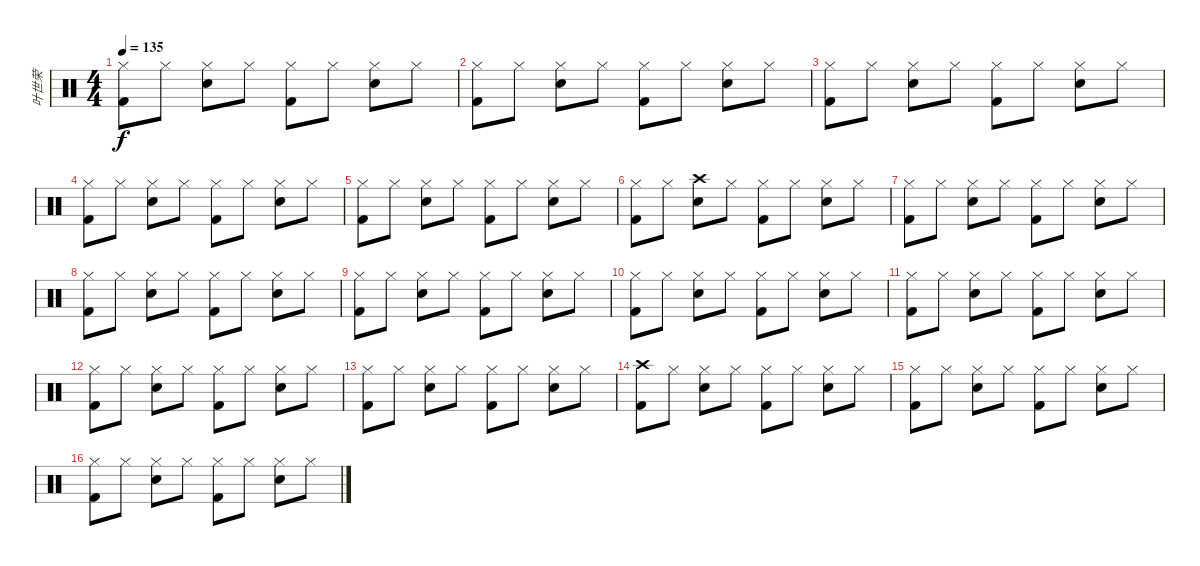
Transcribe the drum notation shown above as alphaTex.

\track ("叶世荣" "叶世荣") {instrument percussion}
\staff {score}
\articulation defaults
\ts (4 4)
\tempo 135
\clef neutral
\ks c
("Hi-Hat (closed)" "Kick (hit) 2").8{dy f} "Hi-Hat (closed)".8 ("Hi-Hat (closed)" "Electric Snare (hit)").8 "Hi-Hat (closed)".8 ("Hi-Hat (closed)" "Kick (hit) 2").8 "Hi-Hat (closed)".8 ("Hi-Hat (closed)" "Electric Snare (hit)").8 "Hi-Hat (closed)".8 |
("Hi-Hat (closed)" "Kick (hit) 2").8 "Hi-Hat (closed)".8 ("Hi-Hat (closed)" "Electric Snare (hit)").8 "Hi-Hat (closed)".8 ("Hi-Hat (closed)" "Kick (hit) 2").8 "Hi-Hat (closed)".8 ("Hi-Hat (closed)" "Electric Snare (hit)").8 "Hi-Hat (closed)".8 |
("Hi-Hat (closed)" "Kick (hit) 2").8 "Hi-Hat (closed)".8 ("Hi-Hat (closed)" "Electric Snare (hit)").8 "Hi-Hat (closed)".8 ("Hi-Hat (closed)" "Kick (hit) 2").8 "Hi-Hat (closed)".8 ("Hi-Hat (closed)" "Electric Snare (hit)").8 "Hi-Hat (closed)".8 |
("Hi-Hat (closed)" "Kick (hit) 2").8 "Hi-Hat (closed)".8 ("Hi-Hat (closed)" "Electric Snare (hit)").8 "Hi-Hat (closed)".8 ("Hi-Hat (closed)" "Kick (hit) 2").8 "Hi-Hat (closed)".8 ("Hi-Hat (closed)" "Electric Snare (hit)").8 "Hi-Hat (closed)".8 |
("Hi-Hat (closed)" "Kick (hit) 2").8 "Hi-Hat (closed)".8 ("Hi-Hat (closed)" "Electric Snare (hit)").8 "Hi-Hat (closed)".8 ("Hi-Hat (closed)" "Kick (hit) 2").8 "Hi-Hat (closed)".8 ("Hi-Hat (closed)" "Electric Snare (hit)").8 "Hi-Hat (closed)".8 |
("Hi-Hat (closed)" "Kick (hit) 2").8 "Hi-Hat (closed)".8 ("Crash high (hit)" "Electric Snare (hit)").8 "Hi-Hat (closed)".8 ("Hi-Hat (closed)" "Kick (hit) 2").8 "Hi-Hat (closed)".8 ("Hi-Hat (closed)" "Electric Snare (hit)").8 "Hi-Hat (closed)".8 |
("Hi-Hat (closed)" "Kick (hit) 2").8 "Hi-Hat (closed)".8 ("Hi-Hat (closed)" "Electric Snare (hit)").8 "Hi-Hat (closed)".8 ("Hi-Hat (closed)" "Kick (hit) 2").8 "Hi-Hat (closed)".8 ("Hi-Hat (closed)" "Electric Snare (hit)").8 "Hi-Hat (closed)".8 |
("Hi-Hat (closed)" "Kick (hit) 2").8 "Hi-Hat (closed)".8 ("Hi-Hat (closed)" "Electric Snare (hit)").8 "Hi-Hat (closed)".8 ("Hi-Hat (closed)" "Kick (hit) 2").8 "Hi-Hat (closed)".8 ("Hi-Hat (closed)" "Electric Snare (hit)").8 "Hi-Hat (closed)".8 |
("Hi-Hat (closed)" "Kick (hit) 2").8 "Hi-Hat (closed)".8 ("Hi-Hat (closed)" "Electric Snare (hit)").8 "Hi-Hat (closed)".8 ("Hi-Hat (closed)" "Kick (hit) 2").8 "Hi-Hat (closed)".8 ("Hi-Hat (closed)" "Electric Snare (hit)").8 "Hi-Hat (closed)".8 |
("Hi-Hat (closed)" "Kick (hit) 2").8 "Hi-Hat (closed)".8 ("Hi-Hat (closed)" "Electric Snare (hit)").8 "Hi-Hat (closed)".8 ("Hi-Hat (closed)" "Kick (hit) 2").8 "Hi-Hat (closed)".8 ("Hi-Hat (closed)" "Electric Snare (hit)").8 "Hi-Hat (closed)".8 |
("Hi-Hat (closed)" "Kick (hit) 2").8 "Hi-Hat (closed)".8 ("Hi-Hat (closed)" "Electric Snare (hit)").8 "Hi-Hat (closed)".8 ("Hi-Hat (closed)" "Kick (hit) 2").8 "Hi-Hat (closed)".8 ("Hi-Hat (closed)" "Electric Snare (hit)").8 "Hi-Hat (closed)".8 |
("Hi-Hat (closed)" "Kick (hit) 2").8 "Hi-Hat (closed)".8 ("Hi-Hat (closed)" "Electric Snare (hit)").8 "Hi-Hat (closed)".8 ("Hi-Hat (closed)" "Kick (hit) 2").8 "Hi-Hat (closed)".8 ("Hi-Hat (closed)" "Electric Snare (hit)").8 "Hi-Hat (closed)".8 |
("Hi-Hat (closed)" "Kick (hit) 2").8 "Hi-Hat (closed)".8 ("Hi-Hat (closed)" "Electric Snare (hit)").8 "Hi-Hat (closed)".8 ("Hi-Hat (closed)" "Kick (hit) 2").8 "Hi-Hat (closed)".8 ("Hi-Hat (closed)" "Electric Snare (hit)").8 "Hi-Hat (closed)".8 |
("Crash high (hit)" "Kick (hit) 2").8 "Hi-Hat (closed)".8 ("Hi-Hat (closed)" "Electric Snare (hit)").8 "Hi-Hat (closed)".8 ("Hi-Hat (closed)" "Kick (hit) 2").8 "Hi-Hat (closed)".8 ("Hi-Hat (closed)" "Electric Snare (hit)").8 "Hi-Hat (closed)".8 |
("Hi-Hat (closed)" "Kick (hit) 2").8 "Hi-Hat (closed)".8 ("Hi-Hat (closed)" "Electric Snare (hit)").8 "Hi-Hat (closed)".8 ("Hi-Hat (closed)" "Kick (hit) 2").8 "Hi-Hat (closed)".8 ("Hi-Hat (closed)" "Electric Snare (hit)").8 "Hi-Hat (closed)".8 |
("Hi-Hat (closed)" "Kick (hit) 2").8 "Hi-Hat (closed)".8 ("Hi-Hat (closed)" "Electric Snare (hit)").8 "Hi-Hat (closed)".8 ("Hi-Hat (closed)" "Kick (hit) 2").8 "Hi-Hat (closed)".8 ("Hi-Hat (closed)" "Electric Snare (hit)").8 "Hi-Hat (closed)".8
